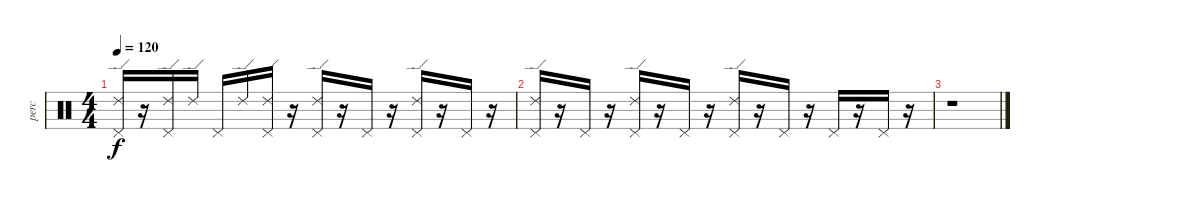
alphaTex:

\track ("perc" "perc") {instrument percussion}
\staff {score}
\articulation defaults
\ts (4 4)
\tempo 120
\clef neutral
\ks c
("Pedal Hi-Hat (hit)" "Ride (edge) 2").16{dy f} r.16 ("Pedal Hi-Hat (hit)" "Ride (edge) 2").16 "Ride (edge) 2".16 "Pedal Hi-Hat (hit)".16 "Ride (edge) 2".16 ("Pedal Hi-Hat (hit)" "Ride (edge) 2").16 r.16 ("Pedal Hi-Hat (hit)" "Ride (edge) 2").16 r.16 "Pedal Hi-Hat (hit)".16 r.16 ("Pedal Hi-Hat (hit)" "Ride (edge) 2").16 r.16 "Pedal Hi-Hat (hit)".16 r.16 |
("Pedal Hi-Hat (hit)" "Ride (edge) 2").16 r.16 "Pedal Hi-Hat (hit)".16 r.16 ("Pedal Hi-Hat (hit)" "Ride (edge) 2").16 r.16 "Pedal Hi-Hat (hit)".16 r.16 ("Pedal Hi-Hat (hit)" "Ride (edge) 2").16 r.16 "Pedal Hi-Hat (hit)".16 r.16 "Pedal Hi-Hat (hit)".16 r.16 "Pedal Hi-Hat (hit)".16 r.16 |
r.1
